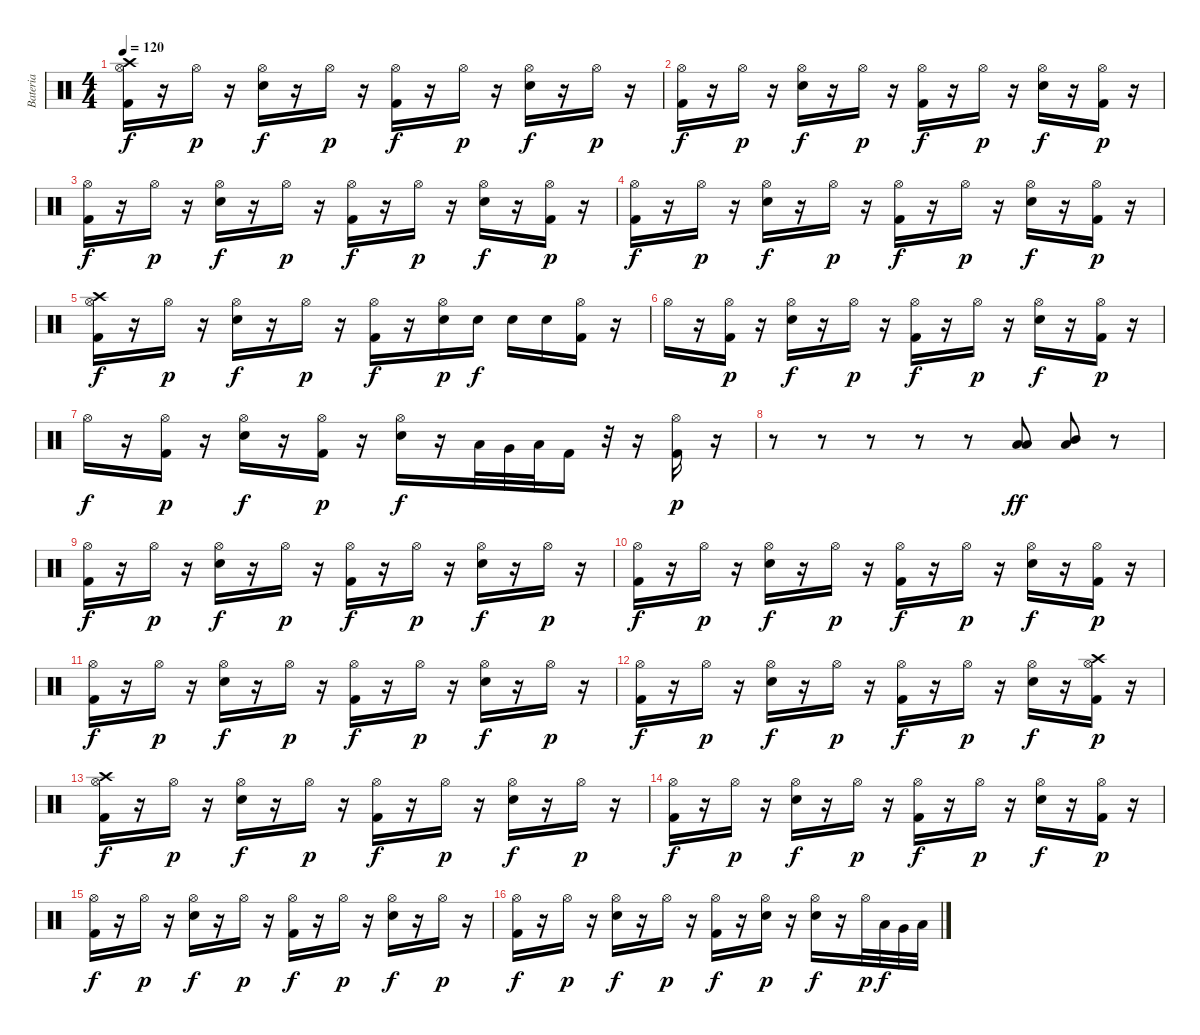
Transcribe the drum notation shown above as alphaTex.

\track ("Bateria" "Bateria") {instrument percussion}
\staff {score}
\articulation defaults
\ts (4 4)
\tempo 120
\clef neutral
\ks c
("Kick (hit) 2" "Crash high (hit)" "Hi-Hat (open)").16{dy f} r.16 "Hi-Hat (open)".16{dy p} r.16 ("Electric Snare (hit)" "Hi-Hat (open)").16{dy f} r.16 "Hi-Hat (open)".16{dy p} r.16 ("Kick (hit) 2" "Hi-Hat (open)").16{dy f} r.16 "Hi-Hat (open)".16{dy p} r.16 ("Electric Snare (hit)" "Hi-Hat (open)").16{dy f} r.16 "Hi-Hat (open)".16{dy p} r.16 |
("Kick (hit) 2" "Hi-Hat (open)").16{dy f} r.16 "Hi-Hat (open)".16{dy p} r.16 ("Electric Snare (hit)" "Hi-Hat (open)").16{dy f} r.16 "Hi-Hat (open)".16{dy p} r.16 ("Kick (hit) 2" "Hi-Hat (open)").16{dy f} r.16 "Hi-Hat (open)".16{dy p} r.16 ("Electric Snare (hit)" "Hi-Hat (open)").16{dy f} r.16 ("Kick (hit) 2" "Hi-Hat (open)").16{dy p} r.16 |
("Kick (hit) 2" "Hi-Hat (open)").16{dy f} r.16 "Hi-Hat (open)".16{dy p} r.16 ("Electric Snare (hit)" "Hi-Hat (open)").16{dy f} r.16 "Hi-Hat (open)".16{dy p} r.16 ("Kick (hit) 2" "Hi-Hat (open)").16{dy f} r.16 "Hi-Hat (open)".16{dy p} r.16 ("Electric Snare (hit)" "Hi-Hat (open)").16{dy f} r.16 ("Kick (hit) 2" "Hi-Hat (open)").16{dy p} r.16 |
("Kick (hit) 2" "Hi-Hat (open)").16{dy f} r.16 "Hi-Hat (open)".16{dy p} r.16 ("Electric Snare (hit)" "Hi-Hat (open)").16{dy f} r.16 "Hi-Hat (open)".16{dy p} r.16 ("Kick (hit) 2" "Hi-Hat (open)").16{dy f} r.16 "Hi-Hat (open)".16{dy p} r.16 ("Electric Snare (hit)" "Hi-Hat (open)").16{dy f} r.16 ("Kick (hit) 2" "Hi-Hat (open)").16{dy p} r.16 |
("Kick (hit) 2" "Crash high (hit)" "Hi-Hat (open)").16{dy f} r.16 "Hi-Hat (open)".16{dy p} r.16 ("Electric Snare (hit)" "Hi-Hat (open)").16{dy f} r.16 "Hi-Hat (open)".16{dy p} r.16 ("Kick (hit) 2" "Hi-Hat (open)").16{dy f} r.16 ("Electric Snare (hit)" "Hi-Hat (open)").16{dy p} "Electric Snare (hit)".16{dy f} "Electric Snare (hit)".16 "Electric Snare (hit)".16 ("Kick (hit) 2" "Hi-Hat (open)").16 r.16 |
"Hi-Hat (open)".16 r.16 ("Kick (hit) 2" "Hi-Hat (open)").16{dy p} r.16 ("Electric Snare (hit)" "Hi-Hat (open)").16{dy f} r.16 "Hi-Hat (open)".16{dy p} r.16 ("Kick (hit) 2" "Hi-Hat (open)").16{dy f} r.16 "Hi-Hat (open)".16{dy p} r.16 ("Electric Snare (hit)" "Hi-Hat (open)").16{dy f} r.16 ("Kick (hit) 2" "Hi-Hat (open)").16{dy p} r.16 |
"Hi-Hat (open)".16{dy f} r.16 ("Kick (hit) 2" "Hi-Hat (open)").16{dy p} r.16 ("Electric Snare (hit)" "Hi-Hat (open)").16{dy f} r.16 ("Kick (hit) 2" "Hi-Hat (open)").16{dy p} r.16 ("Electric Snare (hit)" "Hi-Hat (open)").16{dy f} r.16 "Low Tom (hit)".32 "Very Low Tom (hit)".32 "Low Floor Tom (hit)".32 "Kick (hit) 2".16 r.32 r.16 ("Kick (hit) 2" "Hi-Hat (open)").16{dy p} r.16 |
r.8 r.8 r.8 r.8 r.8 ("Low Floor Tom (hit)" "Low Tom (hit)").8{dy ff} ("Low Floor Tom (hit)" "Mid Tom (hit)").8 r.8 |
("Kick (hit) 2" "Hi-Hat (open)").16{dy f} r.16 "Hi-Hat (open)".16{dy p} r.16 ("Electric Snare (hit)" "Hi-Hat (open)").16{dy f} r.16 "Hi-Hat (open)".16{dy p} r.16 ("Kick (hit) 2" "Hi-Hat (open)").16{dy f} r.16 "Hi-Hat (open)".16{dy p} r.16 ("Electric Snare (hit)" "Hi-Hat (open)").16{dy f} r.16 "Hi-Hat (open)".16{dy p} r.16 |
("Kick (hit) 2" "Hi-Hat (open)").16{dy f} r.16 "Hi-Hat (open)".16{dy p} r.16 ("Electric Snare (hit)" "Hi-Hat (open)").16{dy f} r.16 "Hi-Hat (open)".16{dy p} r.16 ("Kick (hit) 2" "Hi-Hat (open)").16{dy f} r.16 "Hi-Hat (open)".16{dy p} r.16 ("Electric Snare (hit)" "Hi-Hat (open)").16{dy f} r.16 ("Kick (hit) 2" "Hi-Hat (open)").16{dy p} r.16 |
("Kick (hit) 2" "Hi-Hat (open)").16{dy f} r.16 "Hi-Hat (open)".16{dy p} r.16 ("Electric Snare (hit)" "Hi-Hat (open)").16{dy f} r.16 "Hi-Hat (open)".16{dy p} r.16 ("Kick (hit) 2" "Hi-Hat (open)").16{dy f} r.16 "Hi-Hat (open)".16{dy p} r.16 ("Electric Snare (hit)" "Hi-Hat (open)").16{dy f} r.16 "Hi-Hat (open)".16{dy p} r.16 |
("Kick (hit) 2" "Hi-Hat (open)").16{dy f} r.16 "Hi-Hat (open)".16{dy p} r.16 ("Electric Snare (hit)" "Hi-Hat (open)").16{dy f} r.16 "Hi-Hat (open)".16{dy p} r.16 ("Kick (hit) 2" "Hi-Hat (open)").16{dy f} r.16 "Hi-Hat (open)".16{dy p} r.16 ("Electric Snare (hit)" "Hi-Hat (open)").16{dy f} r.16 ("Kick (hit) 2" "Crash high (hit)" "Hi-Hat (open)").16{dy p} r.16 |
("Kick (hit) 2" "Crash high (hit)" "Hi-Hat (open)").16{dy f} r.16 "Hi-Hat (open)".16{dy p} r.16 ("Electric Snare (hit)" "Hi-Hat (open)").16{dy f} r.16 "Hi-Hat (open)".16{dy p} r.16 ("Kick (hit) 2" "Hi-Hat (open)").16{dy f} r.16 "Hi-Hat (open)".16{dy p} r.16 ("Electric Snare (hit)" "Hi-Hat (open)").16{dy f} r.16 "Hi-Hat (open)".16{dy p} r.16 |
("Kick (hit) 2" "Hi-Hat (open)").16{dy f} r.16 "Hi-Hat (open)".16{dy p} r.16 ("Electric Snare (hit)" "Hi-Hat (open)").16{dy f} r.16 "Hi-Hat (open)".16{dy p} r.16 ("Kick (hit) 2" "Hi-Hat (open)").16{dy f} r.16 "Hi-Hat (open)".16{dy p} r.16 ("Electric Snare (hit)" "Hi-Hat (open)").16{dy f} r.16 ("Kick (hit) 2" "Hi-Hat (open)").16{dy p} r.16 |
("Kick (hit) 2" "Hi-Hat (open)").16{dy f} r.16 "Hi-Hat (open)".16{dy p} r.16 ("Electric Snare (hit)" "Hi-Hat (open)").16{dy f} r.16 "Hi-Hat (open)".16{dy p} r.16 ("Kick (hit) 2" "Hi-Hat (open)").16{dy f} r.16 "Hi-Hat (open)".16{dy p} r.16 ("Electric Snare (hit)" "Hi-Hat (open)").16{dy f} r.16 "Hi-Hat (open)".16{dy p} r.16 |
("Kick (hit) 2" "Hi-Hat (open)").16{dy f} r.16 "Hi-Hat (open)".16{dy p} r.16 ("Electric Snare (hit)" "Hi-Hat (open)").16{dy f} r.16 "Hi-Hat (open)".16{dy p} r.16 ("Kick (hit) 2" "Hi-Hat (open)").16{dy f} r.16 ("Electric Snare (hit)" "Hi-Hat (open)").16{dy p} r.16 ("Electric Snare (hit)" "Hi-Hat (open)").16{dy f} r.16 "Hi-Hat (open)".32{dy p} "Low Tom (hit)".32{dy f} "Very Low Tom (hit)".32 "Low Floor Tom (hit)".32
